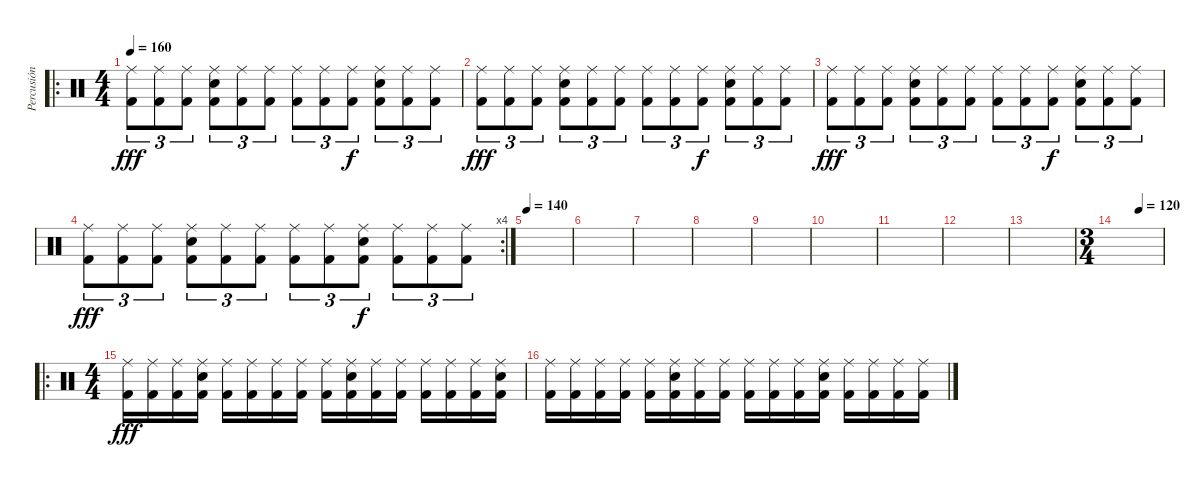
\track ("Percusión" "Percusión") {instrument percussion}
\staff {score}
\articulation defaults
\ro
\ts (4 4)
\tempo 160
\clef neutral
\ks c
("Ride (middle)" "Kick (hit) 2").8{tu (3 2) dy fff} ("Ride (middle)" "Kick (hit) 2").8{tu (3 2)} ("Ride (middle)" "Kick (hit) 2").8{tu (3 2)} ("Ride (middle)" "Electric Snare (hit)" "Kick (hit) 2").8{tu (3 2)} ("Ride (middle)" "Kick (hit) 2").8{tu (3 2)} ("Ride (middle)" "Kick (hit) 2").8{tu (3 2)} ("Ride (middle)" "Kick (hit) 2").8{tu (3 2)} ("Ride (middle)" "Kick (hit) 2").8{tu (3 2)} ("Ride (middle)" "Kick (hit) 2").8{tu (3 2) dy f} ("Ride (middle)" "Electric Snare (hit)" "Kick (hit) 2").8{tu (3 2)} ("Ride (middle)" "Kick (hit) 2").8{tu (3 2)} ("Ride (middle)" "Kick (hit) 2").8{tu (3 2)} |
("Ride (middle)" "Kick (hit) 2").8{tu (3 2) dy fff} ("Ride (middle)" "Kick (hit) 2").8{tu (3 2)} ("Ride (middle)" "Kick (hit) 2").8{tu (3 2)} ("Ride (middle)" "Electric Snare (hit)" "Kick (hit) 2").8{tu (3 2)} ("Ride (middle)" "Kick (hit) 2").8{tu (3 2)} ("Ride (middle)" "Kick (hit) 2").8{tu (3 2)} ("Ride (middle)" "Kick (hit) 2").8{tu (3 2)} ("Ride (middle)" "Kick (hit) 2").8{tu (3 2)} ("Ride (middle)" "Kick (hit) 2").8{tu (3 2) dy f} ("Ride (middle)" "Electric Snare (hit)" "Kick (hit) 2").8{tu (3 2)} ("Ride (middle)" "Kick (hit) 2").8{tu (3 2)} ("Ride (middle)" "Kick (hit) 2").8{tu (3 2)} |
("Ride (middle)" "Kick (hit) 2").8{tu (3 2) dy fff} ("Ride (middle)" "Kick (hit) 2").8{tu (3 2)} ("Ride (middle)" "Kick (hit) 2").8{tu (3 2)} ("Ride (middle)" "Electric Snare (hit)" "Kick (hit) 2").8{tu (3 2)} ("Ride (middle)" "Kick (hit) 2").8{tu (3 2)} ("Ride (middle)" "Kick (hit) 2").8{tu (3 2)} ("Ride (middle)" "Kick (hit) 2").8{tu (3 2)} ("Ride (middle)" "Kick (hit) 2").8{tu (3 2)} ("Ride (middle)" "Kick (hit) 2").8{tu (3 2) dy f} ("Ride (middle)" "Electric Snare (hit)" "Kick (hit) 2").8{tu (3 2)} ("Ride (middle)" "Kick (hit) 2").8{tu (3 2)} ("Ride (middle)" "Kick (hit) 2").8{tu (3 2)} |
\rc 4
("Ride (middle)" "Kick (hit) 2").8{tu (3 2) dy fff} ("Ride (middle)" "Kick (hit) 2").8{tu (3 2)} ("Ride (middle)" "Kick (hit) 2").8{tu (3 2)} ("Ride (middle)" "Electric Snare (hit)" "Kick (hit) 2").8{tu (3 2)} ("Ride (middle)" "Kick (hit) 2").8{tu (3 2)} ("Ride (middle)" "Kick (hit) 2").8{tu (3 2)} ("Ride (middle)" "Kick (hit) 2").8{tu (3 2)} ("Ride (middle)" "Kick (hit) 2").8{tu (3 2)} ("Ride (middle)" "Electric Snare (hit)" "Kick (hit) 2").8{tu (3 2) dy f} ("Ride (middle)" "Kick (hit) 2").8{tu (3 2)} ("Ride (middle)" "Kick (hit) 2").8{tu (3 2)} ("Ride (middle)" "Kick (hit) 2").8{tu (3 2)} |
\tempo 140
|
|
|
|
|
|
|
|
|
\ts (3 4)
\tempo (120 0.5)
|
\ro
\ts (4 4)
("Ride (middle)" "Kick (hit) 2").16{dy fff} ("Ride (middle)" "Kick (hit) 2").16 ("Ride (middle)" "Kick (hit) 2").16 ("Ride (middle)" "Snare (hit) 2" "Kick (hit) 2").16 ("Ride (middle)" "Kick (hit) 2").16 ("Ride (middle)" "Kick (hit) 2").16 ("Ride (middle)" "Kick (hit) 2").16 ("Ride (middle)" "Kick (hit) 2").16 ("Ride (middle)" "Kick (hit) 2").16 ("Ride (middle)" "Snare (hit) 2" "Kick (hit) 2").16 ("Ride (middle)" "Kick (hit) 2").16 ("Ride (middle)" "Kick (hit) 2").16 ("Ride (middle)" "Kick (hit) 2").16 ("Ride (middle)" "Kick (hit) 2").16 ("Ride (middle)" "Kick (hit) 2").16 ("Ride (middle)" "Snare (hit) 2" "Kick (hit) 2").16 |
("Ride (middle)" "Kick (hit) 2").16 ("Ride (middle)" "Kick (hit) 2").16 ("Ride (middle)" "Kick (hit) 2").16 ("Ride (middle)" "Kick (hit) 2").16 ("Ride (middle)" "Kick (hit) 2").16 ("Ride (middle)" "Snare (hit) 2" "Kick (hit) 2").16 ("Ride (middle)" "Kick (hit) 2").16 ("Ride (middle)" "Kick (hit) 2").16 ("Ride (middle)" "Kick (hit) 2").16 ("Ride (middle)" "Kick (hit) 2").16 ("Ride (middle)" "Kick (hit) 2").16 ("Ride (middle)" "Snare (hit) 2" "Kick (hit) 2").16 ("Ride (middle)" "Kick (hit) 2").16 ("Ride (middle)" "Kick (hit) 2").16 ("Ride (middle)" "Kick (hit) 2").16 ("Ride (middle)" "Kick (hit) 2").16
